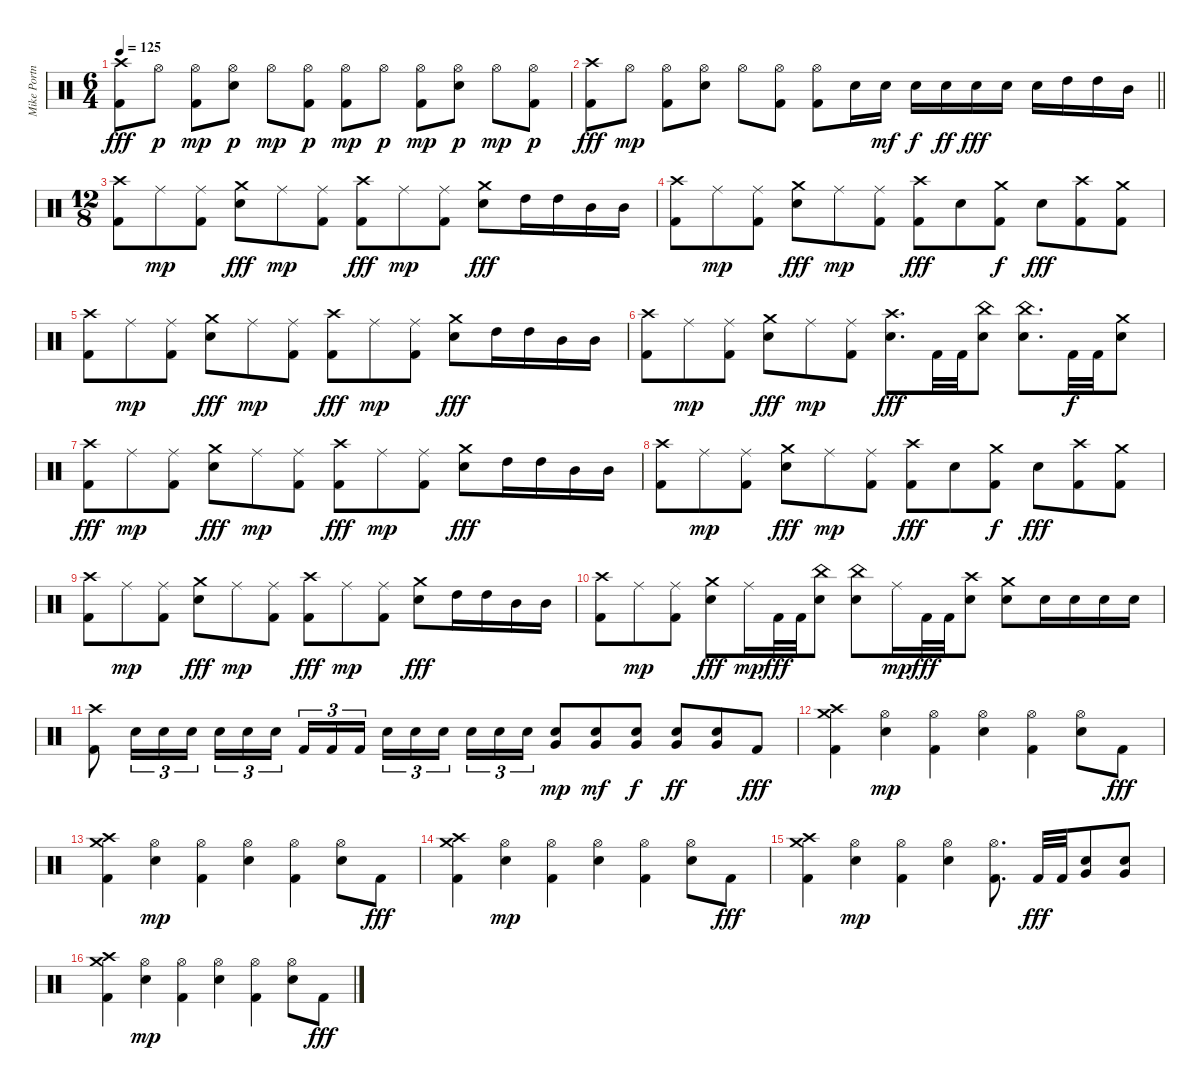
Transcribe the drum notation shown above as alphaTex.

\track ("Mike Portnoy" "Mike Portn") {instrument percussion}
\staff {score}
\articulation defaults
\ts (6 4)
\tempo 125
\clef neutral
\ks c
("Kick (hit) 2" "Crash high (hit)").8{dy fff} "Hi-Hat (open)".8{dy p} ("Kick (hit) 2" "Hi-Hat (open)").8{dy mp} ("Electric Snare (hit)" "Hi-Hat (open)").8{dy p} "Hi-Hat (open)".8{dy mp} ("Kick (hit) 2" "Hi-Hat (open)").8{dy p} ("Kick (hit) 2" "Hi-Hat (open)").8{dy mp} "Hi-Hat (open)".8{dy p} ("Kick (hit) 2" "Hi-Hat (open)").8{dy mp} ("Electric Snare (hit)" "Hi-Hat (open)").8{dy p} "Hi-Hat (open)".8{dy mp} ("Kick (hit) 2" "Hi-Hat (open)").8{dy p} |
\barLineRight lightlight
("Kick (hit) 2" "Crash high (hit)").8{dy fff} "Hi-Hat (open)".8{dy mp} ("Kick (hit) 2" "Hi-Hat (open)").8 ("Electric Snare (hit)" "Hi-Hat (open)").8 "Hi-Hat (open)".8 ("Kick (hit) 2" "Hi-Hat (open)").8 ("Kick (hit) 2" "Hi-Hat (open)").8 "Electric Snare (hit)".16 "Electric Snare (hit)".16{dy mf} "Electric Snare (hit)".16{dy f} "Electric Snare (hit)".16{dy ff} "Electric Snare (hit)".16{dy fff} "Electric Snare (hit)".16 "Electric Snare (hit)".16 "High Tom (hit)".16 "High Tom (hit)".16 "Mid Tom (hit)".16 |
\ts (12 8)
("Kick (hit) 2" "Crash high (hit)").8 "Ride (middle)".8{dy mp} ("Kick (hit) 2" "Ride (middle)").8 ("Electric Snare (hit)" "Crash medium (hit)").8{dy fff} "Ride (middle)".8{dy mp} ("Kick (hit) 2" "Ride (middle)").8 ("Kick (hit) 2" "Crash high (hit)").8{dy fff} "Ride (middle)".8{dy mp} ("Kick (hit) 2" "Ride (middle)").8 ("Electric Snare (hit)" "Crash medium (hit)").8{dy fff} "High Tom (hit)".16 "High Tom (hit)".16 "Mid Tom (hit)".16 "Mid Tom (hit)".16 |
("Kick (hit) 2" "Crash high (hit)").8 "Ride (middle)".8{dy mp} ("Kick (hit) 2" "Ride (middle)").8 ("Electric Snare (hit)" "Crash medium (hit)").8{dy fff} "Ride (middle)".8{dy mp} ("Kick (hit) 2" "Ride (middle)").8 ("Kick (hit) 2" "Crash high (hit)").8{dy fff} "Electric Snare (hit)".8 ("Kick (hit) 2" "Crash medium (hit)").8{dy f} "Electric Snare (hit)".8{dy fff} ("Kick (hit) 2" "Crash high (hit)").8 ("Kick (hit) 2" "Crash medium (hit)").8 |
("Kick (hit) 2" "Crash high (hit)").8 "Ride (middle)".8{dy mp} ("Kick (hit) 2" "Ride (middle)").8 ("Electric Snare (hit)" "Crash medium (hit)").8{dy fff} "Ride (middle)".8{dy mp} ("Kick (hit) 2" "Ride (middle)").8 ("Kick (hit) 2" "Crash high (hit)").8{dy fff} "Ride (middle)".8{dy mp} ("Kick (hit) 2" "Ride (middle)").8 ("Electric Snare (hit)" "Crash medium (hit)").8{dy fff} "High Tom (hit)".16 "High Tom (hit)".16 "Mid Tom (hit)".16 "Mid Tom (hit)".16 |
("Kick (hit) 2" "Crash high (hit)").8 "Ride (middle)".8{dy mp} ("Kick (hit) 2" "Ride (middle)").8 ("Electric Snare (hit)" "Crash medium (hit)").8{dy fff} "Ride (middle)".8{dy mp} ("Kick (hit) 2" "Ride (middle)").8 ("Electric Snare (hit)" "Crash high (hit)").8{d dy fff} "Kick (hit) 2".32 "Kick (hit) 2".32 ("Electric Snare (hit)" "China (hit)").8 ("Electric Snare (hit)" "China (hit)").8{d} "Kick (hit) 2".32{dy f} "Kick (hit) 2".32 ("Electric Snare (hit)" "Crash medium (hit)").8 |
("Kick (hit) 2" "Crash high (hit)").8{dy fff} "Ride (middle)".8{dy mp} ("Kick (hit) 2" "Ride (middle)").8 ("Electric Snare (hit)" "Crash medium (hit)").8{dy fff} "Ride (middle)".8{dy mp} ("Kick (hit) 2" "Ride (middle)").8 ("Kick (hit) 2" "Crash high (hit)").8{dy fff} "Ride (middle)".8{dy mp} ("Kick (hit) 2" "Ride (middle)").8 ("Electric Snare (hit)" "Crash medium (hit)").8{dy fff} "High Tom (hit)".16 "High Tom (hit)".16 "Mid Tom (hit)".16 "Mid Tom (hit)".16 |
("Kick (hit) 2" "Crash high (hit)").8 "Ride (middle)".8{dy mp} ("Kick (hit) 2" "Ride (middle)").8 ("Electric Snare (hit)" "Crash medium (hit)").8{dy fff} "Ride (middle)".8{dy mp} ("Kick (hit) 2" "Ride (middle)").8 ("Kick (hit) 2" "Crash high (hit)").8{dy fff} "Electric Snare (hit)".8 ("Kick (hit) 2" "Crash medium (hit)").8{dy f} "Electric Snare (hit)".8{dy fff} ("Kick (hit) 2" "Crash high (hit)").8 ("Kick (hit) 2" "Crash medium (hit)").8 |
("Kick (hit) 2" "Crash high (hit)").8 "Ride (middle)".8{dy mp} ("Kick (hit) 2" "Ride (middle)").8 ("Electric Snare (hit)" "Crash medium (hit)").8{dy fff} "Ride (middle)".8{dy mp} ("Kick (hit) 2" "Ride (middle)").8 ("Kick (hit) 2" "Crash high (hit)").8{dy fff} "Ride (middle)".8{dy mp} ("Kick (hit) 2" "Ride (middle)").8 ("Electric Snare (hit)" "Crash medium (hit)").8{dy fff} "High Tom (hit)".16 "High Tom (hit)".16 "Mid Tom (hit)".16 "Mid Tom (hit)".16 |
("Kick (hit) 2" "Crash high (hit)").8 "Ride (middle)".8{dy mp} ("Kick (hit) 2" "Ride (middle)").8 ("Electric Snare (hit)" "Crash medium (hit)").8{dy fff} "Ride (middle)".16{dy mp} "Kick (hit) 2".32{dy fff} "Kick (hit) 2".32 ("Electric Snare (hit)" "China (hit)").8 ("Electric Snare (hit)" "China (hit)").8 "Ride (middle)".16{dy mp} "Kick (hit) 2".32{dy fff} "Kick (hit) 2".32 ("Electric Snare (hit)" "Crash high (hit)").8 ("Electric Snare (hit)" "Crash medium (hit)").8 "Electric Snare (hit)".16 "Electric Snare (hit)".16 "Electric Snare (hit)".16 "Electric Snare (hit)".16 |
("Kick (hit) 2" "Crash high (hit)").8 "Electric Snare (hit)".16{tu (3 2)} "Electric Snare (hit)".16{tu (3 2)} "Electric Snare (hit)".16{tu (3 2) beam splitsecondary} "Electric Snare (hit)".16{tu (3 2)} "Electric Snare (hit)".16{tu (3 2)} "Electric Snare (hit)".16{tu (3 2)} "Kick (hit) 2".16{tu (3 2)} "Kick (hit) 2".16{tu (3 2)} "Kick (hit) 2".16{tu (3 2) beam splitsecondary} "Electric Snare (hit)".16{tu (3 2)} "Electric Snare (hit)".16{tu (3 2)} "Electric Snare (hit)".16{tu (3 2) beam splitsecondary} "Electric Snare (hit)".16{tu (3 2)} "Electric Snare (hit)".16{tu (3 2)} "Electric Snare (hit)".16{tu (3 2)} ("Electric Snare (hit)" "Very Low Tom (hit)").8{dy mp} ("Electric Snare (hit)" "Very Low Tom (hit)").8{dy mf} ("Electric Snare (hit)" "Very Low Tom (hit)").8{dy f} ("Electric Snare (hit)" "Very Low Tom (hit)").8{dy ff} ("Electric Snare (hit)" "Very Low Tom (hit)").8 "Kick (hit) 2".8{dy fff} |
("Kick (hit) 2" "Crash high (hit)" "Crash medium (hit)").4 ("Electric Snare (hit)" "Hi-Hat (open)").4{dy mp} ("Kick (hit) 2" "Hi-Hat (open)").4 ("Electric Snare (hit)" "Hi-Hat (open)").4 ("Kick (hit) 2" "Hi-Hat (open)").4 ("Electric Snare (hit)" "Hi-Hat (open)").8 "Kick (hit) 2".8{dy fff} |
("Kick (hit) 2" "Crash high (hit)" "Crash medium (hit)").4 ("Electric Snare (hit)" "Hi-Hat (open)").4{dy mp} ("Kick (hit) 2" "Hi-Hat (open)").4 ("Electric Snare (hit)" "Hi-Hat (open)").4 ("Kick (hit) 2" "Hi-Hat (open)").4 ("Electric Snare (hit)" "Hi-Hat (open)").8 "Kick (hit) 2".8{dy fff} |
("Kick (hit) 2" "Crash high (hit)" "Crash medium (hit)").4 ("Electric Snare (hit)" "Hi-Hat (open)").4{dy mp} ("Kick (hit) 2" "Hi-Hat (open)").4 ("Electric Snare (hit)" "Hi-Hat (open)").4 ("Kick (hit) 2" "Hi-Hat (open)").4 ("Electric Snare (hit)" "Hi-Hat (open)").8 "Kick (hit) 2".8{dy fff} |
("Kick (hit) 2" "Crash high (hit)" "Crash medium (hit)").4 ("Electric Snare (hit)" "Hi-Hat (open)").4{dy mp} ("Kick (hit) 2" "Hi-Hat (open)").4 ("Electric Snare (hit)" "Hi-Hat (open)").4 ("Kick (hit) 2" "Hi-Hat (open)").8{d} "Kick (hit) 2".32{dy fff} "Kick (hit) 2".32 ("Electric Snare (hit)" "Very Low Tom (hit)").8 ("Electric Snare (hit)" "Very Low Tom (hit)").8 |
("Kick (hit) 2" "Crash high (hit)" "Crash medium (hit)").4 ("Electric Snare (hit)" "Hi-Hat (open)").4{dy mp} ("Kick (hit) 2" "Hi-Hat (open)").4 ("Electric Snare (hit)" "Hi-Hat (open)").4 ("Kick (hit) 2" "Hi-Hat (open)").4 ("Electric Snare (hit)" "Hi-Hat (open)").8 "Kick (hit) 2".8{dy fff}
